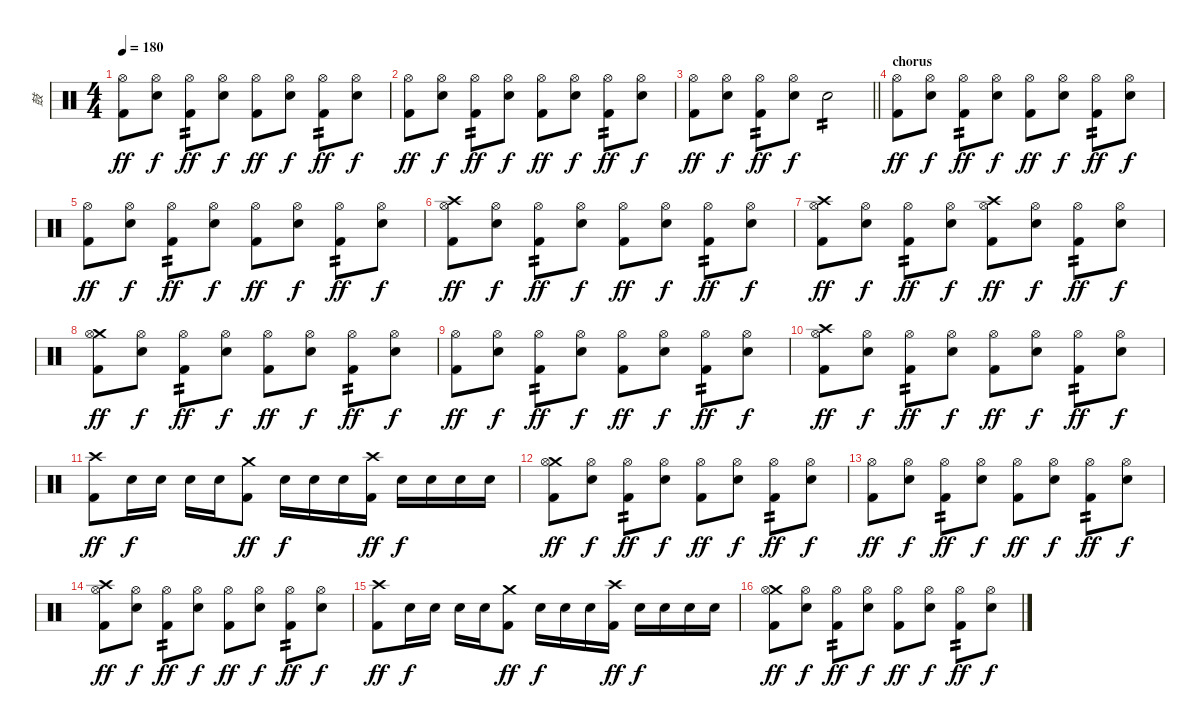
\track ("鼓" "鼓") {instrument percussion}
\staff {score}
\articulation defaults
\ts (4 4)
\tempo 180
\clef neutral
\ks c
("Hi-Hat (open)" "Kick (hit) 2").8{dy ff} ("Hi-Hat (open)" "Snare (hit) 2").8{dy f} ("Hi-Hat (open)" "Kick (hit) 2").8{tp 2 dy ff} ("Hi-Hat (open)" "Snare (hit) 2").8{dy f} ("Hi-Hat (open)" "Kick (hit) 2").8{dy ff} ("Hi-Hat (open)" "Snare (hit) 2").8{dy f} ("Hi-Hat (open)" "Kick (hit) 2").8{tp 2 dy ff} ("Hi-Hat (open)" "Snare (hit) 2").8{dy f} |
("Hi-Hat (open)" "Kick (hit) 2").8{dy ff} ("Hi-Hat (open)" "Snare (hit) 2").8{dy f} ("Hi-Hat (open)" "Kick (hit) 2").8{tp 2 dy ff} ("Hi-Hat (open)" "Snare (hit) 2").8{dy f} ("Hi-Hat (open)" "Kick (hit) 2").8{dy ff} ("Hi-Hat (open)" "Snare (hit) 2").8{dy f} ("Hi-Hat (open)" "Kick (hit) 2").8{tp 2 dy ff} ("Hi-Hat (open)" "Snare (hit) 2").8{dy f} |
\barLineRight lightlight
("Hi-Hat (open)" "Kick (hit) 2").8{dy ff} ("Hi-Hat (open)" "Snare (hit) 2").8{dy f} ("Hi-Hat (open)" "Kick (hit) 2").8{tp 2 dy ff} ("Hi-Hat (open)" "Snare (hit) 2").8{dy f} "Snare (hit) 2".2{tp 2} |
\section ("" "chorus")
("Hi-Hat (open)" "Kick (hit) 2").8{dy ff} ("Hi-Hat (open)" "Snare (hit) 2").8{dy f} ("Hi-Hat (open)" "Kick (hit) 2").8{tp 2 dy ff} ("Hi-Hat (open)" "Snare (hit) 2").8{dy f} ("Hi-Hat (open)" "Kick (hit) 2").8{dy ff} ("Hi-Hat (open)" "Snare (hit) 2").8{dy f} ("Hi-Hat (open)" "Kick (hit) 2").8{tp 2 dy ff} ("Hi-Hat (open)" "Snare (hit) 2").8{dy f} |
("Hi-Hat (open)" "Kick (hit) 2").8{dy ff} ("Hi-Hat (open)" "Snare (hit) 2").8{dy f} ("Hi-Hat (open)" "Kick (hit) 2").8{tp 2 dy ff} ("Hi-Hat (open)" "Snare (hit) 2").8{dy f} ("Hi-Hat (open)" "Kick (hit) 2").8{dy ff} ("Hi-Hat (open)" "Snare (hit) 2").8{dy f} ("Hi-Hat (open)" "Kick (hit) 2").8{tp 2 dy ff} ("Hi-Hat (open)" "Snare (hit) 2").8{dy f} |
("Crash high (hit)" "Hi-Hat (open)" "Kick (hit) 2").8{dy ff} ("Hi-Hat (open)" "Snare (hit) 2").8{dy f} ("Hi-Hat (open)" "Kick (hit) 2").8{tp 2 dy ff} ("Hi-Hat (open)" "Snare (hit) 2").8{dy f} ("Hi-Hat (open)" "Kick (hit) 2").8{dy ff} ("Hi-Hat (open)" "Snare (hit) 2").8{dy f} ("Hi-Hat (open)" "Kick (hit) 2").8{tp 2 dy ff} ("Hi-Hat (open)" "Snare (hit) 2").8{dy f} |
("Crash high (hit)" "Hi-Hat (open)" "Kick (hit) 2").8{dy ff} ("Hi-Hat (open)" "Snare (hit) 2").8{dy f} ("Hi-Hat (open)" "Kick (hit) 2").8{tp 2 dy ff} ("Hi-Hat (open)" "Snare (hit) 2").8{dy f} ("Crash high (hit)" "Hi-Hat (open)" "Kick (hit) 2").8{dy ff} ("Hi-Hat (open)" "Snare (hit) 2").8{dy f} ("Hi-Hat (open)" "Kick (hit) 2").8{tp 2 dy ff} ("Hi-Hat (open)" "Snare (hit) 2").8{dy f} |
("Crash medium (hit)" "Hi-Hat (open)" "Kick (hit) 2").8{dy ff} ("Hi-Hat (open)" "Snare (hit) 2").8{dy f} ("Hi-Hat (open)" "Kick (hit) 2").8{tp 2 dy ff} ("Hi-Hat (open)" "Snare (hit) 2").8{dy f} ("Hi-Hat (open)" "Kick (hit) 2").8{dy ff} ("Hi-Hat (open)" "Snare (hit) 2").8{dy f} ("Hi-Hat (open)" "Kick (hit) 2").8{tp 2 dy ff} ("Hi-Hat (open)" "Snare (hit) 2").8{dy f} |
("Hi-Hat (open)" "Kick (hit) 2").8{dy ff} ("Hi-Hat (open)" "Snare (hit) 2").8{dy f} ("Hi-Hat (open)" "Kick (hit) 2").8{tp 2 dy ff} ("Hi-Hat (open)" "Snare (hit) 2").8{dy f} ("Hi-Hat (open)" "Kick (hit) 2").8{dy ff} ("Hi-Hat (open)" "Snare (hit) 2").8{dy f} ("Hi-Hat (open)" "Kick (hit) 2").8{tp 2 dy ff} ("Hi-Hat (open)" "Snare (hit) 2").8{dy f} |
("Crash high (hit)" "Hi-Hat (open)" "Kick (hit) 2").8{dy ff} ("Hi-Hat (open)" "Snare (hit) 2").8{dy f} ("Hi-Hat (open)" "Kick (hit) 2").8{tp 2 dy ff} ("Hi-Hat (open)" "Snare (hit) 2").8{dy f} ("Hi-Hat (open)" "Kick (hit) 2").8{dy ff} ("Hi-Hat (open)" "Snare (hit) 2").8{dy f} ("Hi-Hat (open)" "Kick (hit) 2").8{tp 2 dy ff} ("Hi-Hat (open)" "Snare (hit) 2").8{dy f} |
("Crash high (hit)" "Kick (hit) 2").8{dy ff} "Snare (hit) 2".16{dy f} "Snare (hit) 2".16 "Snare (hit) 2".16 "Snare (hit) 2".16 ("Crash medium (hit)" "Kick (hit) 2").8{dy ff} "Snare (hit) 2".16{dy f} "Snare (hit) 2".16 "Snare (hit) 2".16 ("Crash high (hit)" "Kick (hit) 2").16{dy ff} "Snare (hit) 2".16{dy f} "Snare (hit) 2".16 "Snare (hit) 2".16 "Snare (hit) 2".16 |
("Crash medium (hit)" "Hi-Hat (open)" "Kick (hit) 2").8{dy ff} ("Hi-Hat (open)" "Snare (hit) 2").8{dy f} ("Hi-Hat (open)" "Kick (hit) 2").8{tp 2 dy ff} ("Hi-Hat (open)" "Snare (hit) 2").8{dy f} ("Hi-Hat (open)" "Kick (hit) 2").8{dy ff} ("Hi-Hat (open)" "Snare (hit) 2").8{dy f} ("Hi-Hat (open)" "Kick (hit) 2").8{tp 2 dy ff} ("Hi-Hat (open)" "Snare (hit) 2").8{dy f} |
("Hi-Hat (open)" "Kick (hit) 2").8{dy ff} ("Hi-Hat (open)" "Snare (hit) 2").8{dy f} ("Hi-Hat (open)" "Kick (hit) 2").8{tp 2 dy ff} ("Hi-Hat (open)" "Snare (hit) 2").8{dy f} ("Hi-Hat (open)" "Kick (hit) 2").8{dy ff} ("Hi-Hat (open)" "Snare (hit) 2").8{dy f} ("Hi-Hat (open)" "Kick (hit) 2").8{tp 2 dy ff} ("Hi-Hat (open)" "Snare (hit) 2").8{dy f} |
("Crash high (hit)" "Hi-Hat (open)" "Kick (hit) 2").8{dy ff} ("Hi-Hat (open)" "Snare (hit) 2").8{dy f} ("Hi-Hat (open)" "Kick (hit) 2").8{tp 2 dy ff} ("Hi-Hat (open)" "Snare (hit) 2").8{dy f} ("Hi-Hat (open)" "Kick (hit) 2").8{dy ff} ("Hi-Hat (open)" "Snare (hit) 2").8{dy f} ("Hi-Hat (open)" "Kick (hit) 2").8{tp 2 dy ff} ("Hi-Hat (open)" "Snare (hit) 2").8{dy f} |
("Crash high (hit)" "Kick (hit) 2").8{dy ff} "Snare (hit) 2".16{dy f} "Snare (hit) 2".16 "Snare (hit) 2".16 "Snare (hit) 2".16 ("Crash medium (hit)" "Kick (hit) 2").8{dy ff} "Snare (hit) 2".16{dy f} "Snare (hit) 2".16 "Snare (hit) 2".16 ("Crash high (hit)" "Kick (hit) 2").16{dy ff} "Snare (hit) 2".16{dy f} "Snare (hit) 2".16 "Snare (hit) 2".16 "Snare (hit) 2".16 |
("Crash medium (hit)" "Hi-Hat (open)" "Kick (hit) 2").8{dy ff} ("Hi-Hat (open)" "Snare (hit) 2").8{dy f} ("Hi-Hat (open)" "Kick (hit) 2").8{tp 2 dy ff} ("Hi-Hat (open)" "Snare (hit) 2").8{dy f} ("Hi-Hat (open)" "Kick (hit) 2").8{dy ff} ("Hi-Hat (open)" "Snare (hit) 2").8{dy f} ("Hi-Hat (open)" "Kick (hit) 2").8{tp 2 dy ff} ("Hi-Hat (open)" "Snare (hit) 2").8{dy f}
